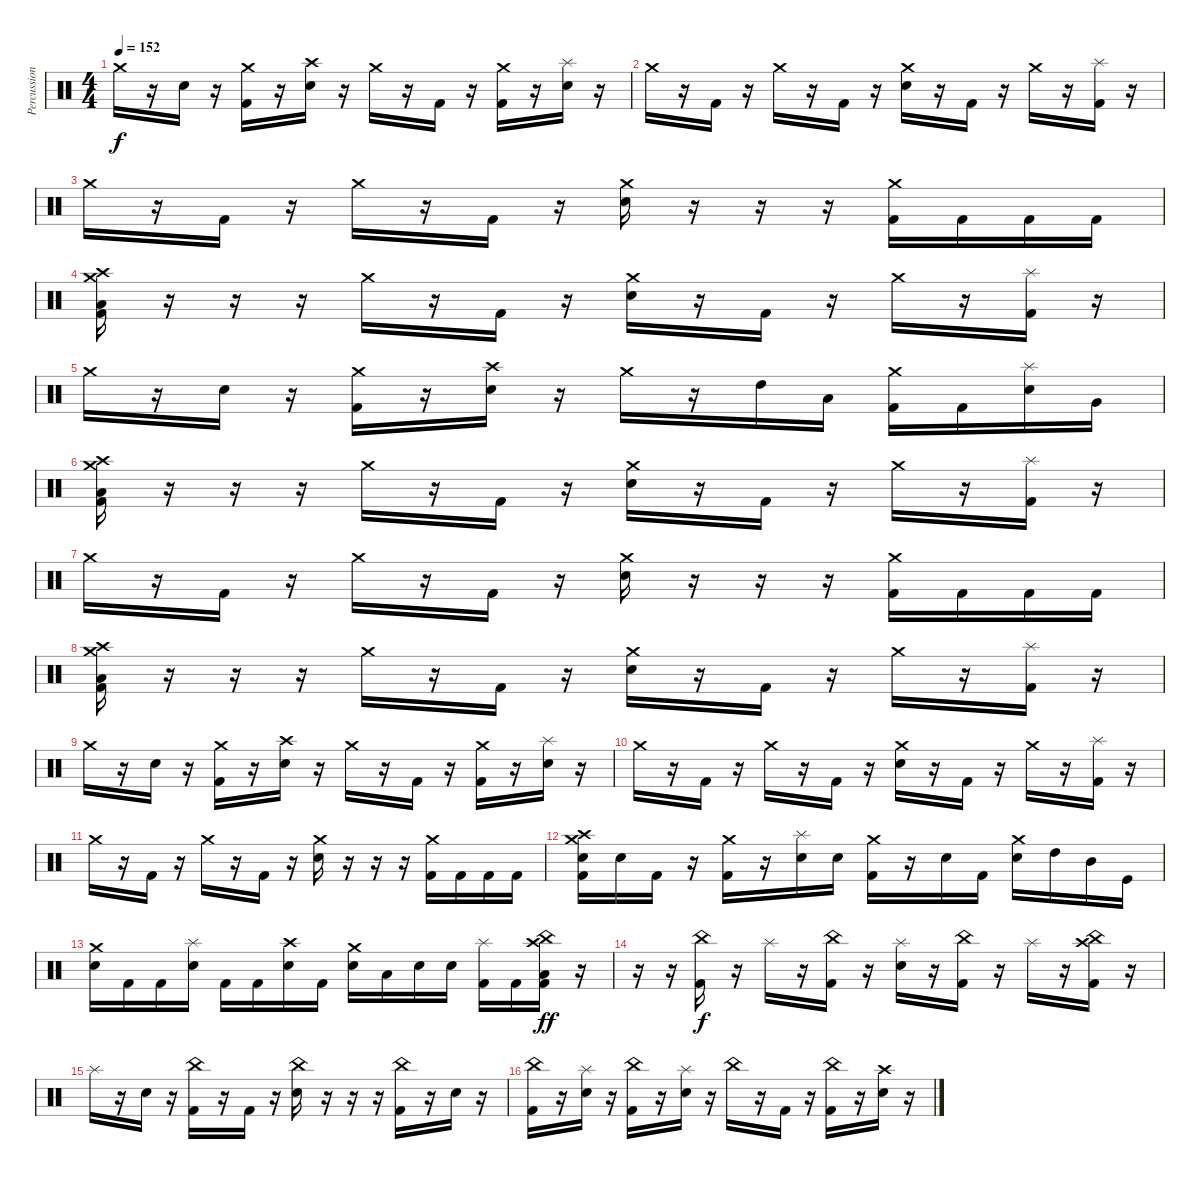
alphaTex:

\track ("Percussion" "Percussion") {instrument percussion}
\staff {score}
\articulation defaults
\ts (4 4)
\tempo 152
\clef neutral
\ks c "Crash medium (hit)".16{dy f}
r.16 "Electric Snare (hit)".16 r.16 ("Crash medium (hit)" "Kick (hit) 2").16 r.16 ("Crash high (hit)" "Electric Snare (hit)").16 r.16 "Crash medium (hit)".16 r.16 "Kick (hit) 2".16 r.16 ("Crash medium (hit)" "Kick (hit) 2").16 r.16 ("Splash (hit)" "Electric Snare (hit)").16 r.16 |
"Crash medium (hit)".16 r.16 "Kick (hit) 2".16 r.16 "Crash medium (hit)".16 r.16 "Kick (hit) 2".16 r.16 ("Crash medium (hit)" "Electric Snare (hit)").16 r.16 "Kick (hit) 2".16 r.16 "Crash medium (hit)".16 r.16 ("Splash (hit)" "Kick (hit) 2").16 r.16 |
"Crash medium (hit)".16 r.16 "Kick (hit) 2".16 r.16 "Crash medium (hit)".16 r.16 "Kick (hit) 2".16 r.16 ("Crash medium (hit)" "Electric Snare (hit)").16 r.16 r.16 r.16 ("Crash medium (hit)" "Kick (hit) 2").16 "Kick (hit) 2".16 "Kick (hit) 2".16 "Kick (hit) 2".16 |
("Crash medium (hit)" "Crash high (hit)" "Low Floor Tom (hit)" "Kick (hit) 2").16 r.16 r.16 r.16 "Crash medium (hit)".16 r.16 "Kick (hit) 2".16 r.16 ("Crash medium (hit)" "Electric Snare (hit)").16 r.16 "Kick (hit) 2".16 r.16 "Crash medium (hit)".16 r.16 ("Splash (hit)" "Kick (hit) 2").16 r.16 |
"Crash medium (hit)".16 r.16 "Electric Snare (hit)".16 r.16 ("Crash medium (hit)" "Kick (hit) 2").16 r.16 ("Crash high (hit)" "Electric Snare (hit)").16 r.16 "Crash medium (hit)".16 r.16 "High Tom (hit)".16 "Low Tom (hit)".16 ("Crash medium (hit)" "Kick (hit) 2").16 "Kick (hit) 2".16 ("Splash (hit)" "Electric Snare (hit)").16 "Very Low Tom (hit)".16 |
("Crash high (hit)" "Crash medium (hit)" "Low Floor Tom (hit)" "Kick (hit) 2").16 r.16 r.16 r.16 "Crash medium (hit)".16 r.16 "Kick (hit) 2".16 r.16 ("Crash medium (hit)" "Electric Snare (hit)").16 r.16 "Kick (hit) 2".16 r.16 "Crash medium (hit)".16 r.16 ("Splash (hit)" "Kick (hit) 2").16 r.16 |
"Crash medium (hit)".16 r.16 "Kick (hit) 2".16 r.16 "Crash medium (hit)".16 r.16 "Kick (hit) 2".16 r.16 ("Crash medium (hit)" "Electric Snare (hit)").16 r.16 r.16 r.16 ("Crash medium (hit)" "Kick (hit) 2").16 "Kick (hit) 2".16 "Kick (hit) 2".16 "Kick (hit) 2".16 |
("Crash medium (hit)" "Crash high (hit)" "Low Floor Tom (hit)" "Kick (hit) 2").16 r.16 r.16 r.16 "Crash medium (hit)".16 r.16 "Kick (hit) 2".16 r.16 ("Crash medium (hit)" "Electric Snare (hit)").16 r.16 "Kick (hit) 2".16 r.16 "Crash medium (hit)".16 r.16 ("Splash (hit)" "Kick (hit) 2").16 r.16 |
"Crash medium (hit)".16 r.16 "Electric Snare (hit)".16 r.16 ("Crash medium (hit)" "Kick (hit) 2").16 r.16 ("Crash high (hit)" "Electric Snare (hit)").16 r.16 "Crash medium (hit)".16 r.16 "Kick (hit) 2".16 r.16 ("Crash medium (hit)" "Kick (hit) 2").16 r.16 ("Splash (hit)" "Electric Snare (hit)").16 r.16 |
"Crash medium (hit)".16 r.16 "Kick (hit) 2".16 r.16 "Crash medium (hit)".16 r.16 "Kick (hit) 2".16 r.16 ("Crash medium (hit)" "Electric Snare (hit)").16 r.16 "Kick (hit) 2".16 r.16 "Crash medium (hit)".16 r.16 ("Splash (hit)" "Kick (hit) 2").16 r.16 |
"Crash medium (hit)".16 r.16 "Kick (hit) 2".16 r.16 "Crash medium (hit)".16 r.16 "Kick (hit) 2".16 r.16 ("Crash medium (hit)" "Electric Snare (hit)").16 r.16 r.16 r.16 ("Crash medium (hit)" "Kick (hit) 2").16 "Kick (hit) 2".16 "Kick (hit) 2".16 "Kick (hit) 2".16 |
("Crash medium (hit)" "Crash high (hit)" "Electric Snare (hit)" "Kick (hit) 2").16 "Electric Snare (hit)".16 "Kick (hit) 2".16 r.16 ("Crash medium (hit)" "Kick (hit) 2").16 r.16 ("Splash (hit)" "Electric Snare (hit)").16 "Electric Snare (hit)".16 ("Crash medium (hit)" "Kick (hit) 2").16 r.16 "Electric Snare (hit)".16 "Kick (hit) 2".16 ("Crash medium (hit)" "Electric Snare (hit)").16 "High Tom (hit)".16 "Mid Tom (hit)".16 "Kick (hit)".16 |
("Crash medium (hit)" "Electric Snare (hit)").16 "Kick (hit) 2".16 "Kick (hit) 2".16 ("Splash (hit)" "Electric Snare (hit)").16 "Kick (hit) 2".16 "Kick (hit) 2".16 ("Crash high (hit)" "Electric Snare (hit)").16 "Kick (hit) 2".16 ("Crash medium (hit)" "Electric Snare (hit)").16 "Low Tom (hit)".16 "Electric Snare (hit)".16 "Electric Snare (hit)".16 ("Splash (hit)" "Kick (hit) 2").16 "Kick (hit) 2".16 ("China (hit)" "Crash high (hit)" "Low Floor Tom (hit)" "Kick (hit) 2").16{dy ff} r.16 |
r.16 r.16 ("China (hit)" "Kick (hit) 2").16{dy f} r.16 "Splash (hit)".16 r.16 ("China (hit)" "Kick (hit) 2").16 r.16 ("Splash (hit)" "Electric Snare (hit)").16 r.16 ("China (hit)" "Kick (hit) 2").16 r.16 "Splash (hit)".16 r.16 ("China (hit)" "Crash high (hit)" "Kick (hit) 2").16 r.16 |
"Splash (hit)".16 r.16 "Electric Snare (hit)".16 r.16 ("China (hit)" "Kick (hit) 2").16 r.16 "Kick (hit) 2".16 r.16 ("China (hit)" "Electric Snare (hit)").16 r.16 r.16 r.16 ("China (hit)" "Kick (hit) 2").16 r.16 "Electric Snare (hit)".16 r.16 |
("China (hit)" "Kick (hit) 2").16 r.16 ("Splash (hit)" "Electric Snare (hit)").16 r.16 ("China (hit)" "Kick (hit) 2").16 r.16 ("Splash (hit)" "Electric Snare (hit)").16 r.16 "China (hit)".16 r.16 "Kick (hit) 2".16 r.16 ("China (hit)" "Kick (hit) 2").16 r.16 ("Crash high (hit)" "Electric Snare (hit)").16 r.16
